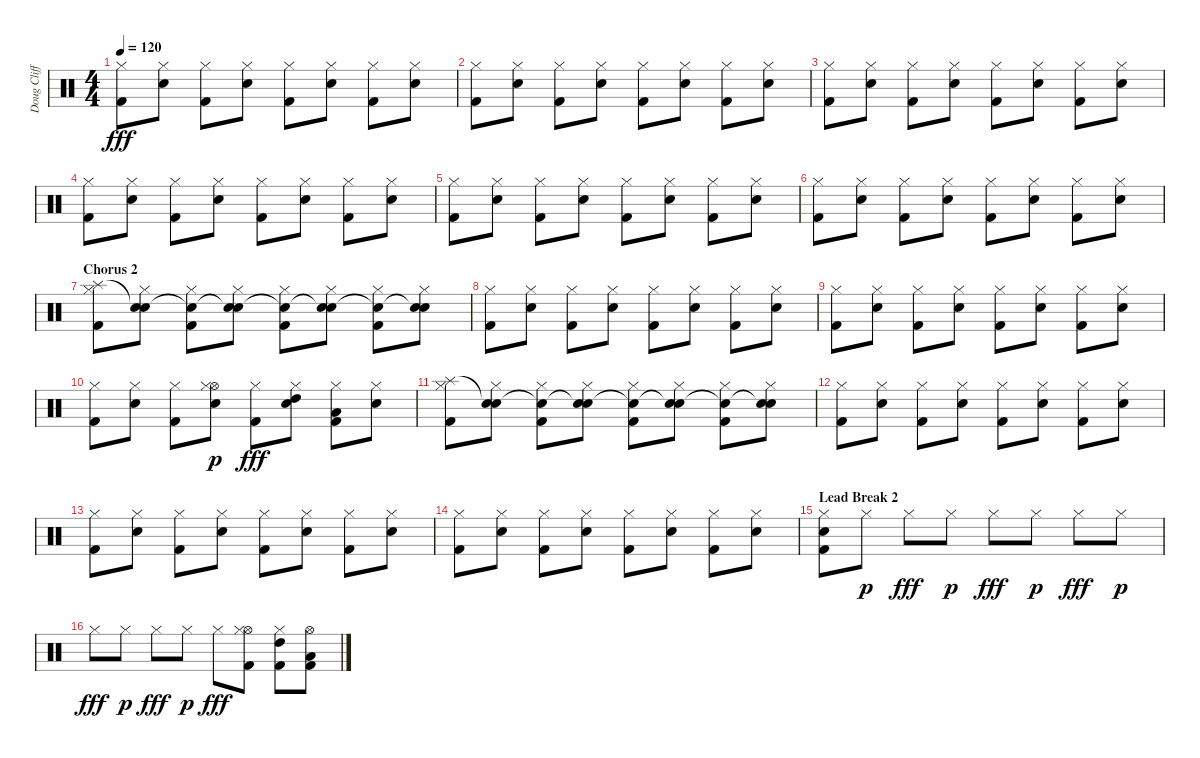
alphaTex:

\track ("Doug Clifford" "Doug Cliff") {instrument percussion}
\staff {score}
\articulation defaults
\ts (4 4)
\tempo 120
\clef neutral
\ks c
("Hi-Hat (closed)" "Kick (hit) 2").8{dy fff} ("Hi-Hat (closed)" "Snare (hit) 2").8 ("Hi-Hat (closed)" "Kick (hit) 2").8 ("Hi-Hat (closed)" "Snare (hit) 2").8 ("Hi-Hat (closed)" "Kick (hit) 2").8 ("Hi-Hat (closed)" "Snare (hit) 2").8 ("Hi-Hat (closed)" "Kick (hit) 2").8 ("Hi-Hat (closed)" "Snare (hit) 2").8 |
("Hi-Hat (closed)" "Kick (hit) 2").8 ("Hi-Hat (closed)" "Snare (hit) 2").8 ("Hi-Hat (closed)" "Kick (hit) 2").8 ("Hi-Hat (closed)" "Snare (hit) 2").8 ("Hi-Hat (closed)" "Kick (hit) 2").8 ("Hi-Hat (closed)" "Snare (hit) 2").8 ("Hi-Hat (closed)" "Kick (hit) 2").8 ("Hi-Hat (closed)" "Snare (hit) 2").8 |
("Hi-Hat (closed)" "Kick (hit) 2").8 ("Hi-Hat (closed)" "Snare (hit) 2").8 ("Hi-Hat (closed)" "Kick (hit) 2").8 ("Hi-Hat (closed)" "Snare (hit) 2").8 ("Hi-Hat (closed)" "Kick (hit) 2").8 ("Hi-Hat (closed)" "Snare (hit) 2").8 ("Hi-Hat (closed)" "Kick (hit) 2").8 ("Hi-Hat (closed)" "Snare (hit) 2").8 |
("Hi-Hat (closed)" "Kick (hit) 2").8 ("Hi-Hat (closed)" "Snare (hit) 2").8 ("Hi-Hat (closed)" "Kick (hit) 2").8 ("Hi-Hat (closed)" "Snare (hit) 2").8 ("Hi-Hat (closed)" "Kick (hit) 2").8 ("Hi-Hat (closed)" "Snare (hit) 2").8 ("Hi-Hat (closed)" "Kick (hit) 2").8 ("Hi-Hat (closed)" "Snare (hit) 2").8 |
("Hi-Hat (closed)" "Kick (hit) 2").8 ("Hi-Hat (closed)" "Snare (hit) 2").8 ("Hi-Hat (closed)" "Kick (hit) 2").8 ("Hi-Hat (closed)" "Snare (hit) 2").8 ("Hi-Hat (closed)" "Kick (hit) 2").8 ("Hi-Hat (closed)" "Snare (hit) 2").8 ("Hi-Hat (closed)" "Kick (hit) 2").8 ("Hi-Hat (closed)" "Snare (hit) 2").8 |
("Hi-Hat (closed)" "Kick (hit) 2").8 ("Hi-Hat (closed)" "Snare (hit) 2").8 ("Hi-Hat (closed)" "Kick (hit) 2").8 ("Hi-Hat (closed)" "Snare (hit) 2").8 ("Hi-Hat (closed)" "Kick (hit) 2").8 ("Hi-Hat (closed)" "Snare (hit) 2").8 ("Hi-Hat (closed)" "Kick (hit) 2").8 ("Hi-Hat (closed)" "Snare (hit) 2").8 |
\section ("" "Chorus 2")
("Splash (hit)" "Hi-Hat (closed)" "Kick (hit) 2").8 ("Snare (hit)"{t} "Hi-Hat (closed)" "Snare (hit) 2").8 ("Snare (hit)"{t} "Hi-Hat (closed)" "Kick (hit) 2").8 ("Snare (hit)"{t} "Hi-Hat (closed)" "Snare (hit) 2").8 ("Snare (hit)"{t} "Hi-Hat (closed)" "Kick (hit) 2").8 ("Snare (hit)"{t} "Hi-Hat (closed)" "Snare (hit) 2").8 ("Snare (hit)"{t} "Hi-Hat (closed)" "Kick (hit) 2").8 ("Snare (hit)"{t} "Hi-Hat (closed)" "Snare (hit) 2").8 |
("Hi-Hat (closed)" "Kick (hit) 2").8 ("Hi-Hat (closed)" "Snare (hit) 2").8 ("Hi-Hat (closed)" "Kick (hit) 2").8 ("Hi-Hat (closed)" "Snare (hit) 2").8 ("Hi-Hat (closed)" "Kick (hit) 2").8 ("Hi-Hat (closed)" "Snare (hit) 2").8 ("Hi-Hat (closed)" "Kick (hit) 2").8 ("Hi-Hat (closed)" "Snare (hit) 2").8 |
("Hi-Hat (closed)" "Kick (hit) 2").8 ("Hi-Hat (closed)" "Snare (hit) 2").8 ("Hi-Hat (closed)" "Kick (hit) 2").8 ("Hi-Hat (closed)" "Snare (hit) 2").8 ("Hi-Hat (closed)" "Kick (hit) 2").8 ("Hi-Hat (closed)" "Snare (hit) 2").8 ("Hi-Hat (closed)" "Kick (hit) 2").8 ("Hi-Hat (closed)" "Snare (hit) 2").8 |
("Hi-Hat (closed)" "Kick (hit) 2").8 ("Hi-Hat (closed)" "Snare (hit) 2").8 ("Hi-Hat (closed)" "Kick (hit) 2").8 ("Hi-Hat (open)" "Hi-Hat (closed)" "Snare (hit) 2").8{dy p} ("Hi-Hat (closed)" "Kick (hit) 2").8{dy fff} ("High Tom (hit)" "Hi-Hat (closed)" "Snare (hit) 2").8 ("Low Tom (hit)" "Hi-Hat (closed)" "Kick (hit) 2").8 ("Hi-Hat (closed)" "Electric Snare (hit)").8 |
("Splash (hit)" "Hi-Hat (closed)" "Kick (hit) 2").8 ("Snare (hit)"{t} "Hi-Hat (closed)" "Snare (hit) 2").8 ("Snare (hit)"{t} "Hi-Hat (closed)" "Kick (hit) 2").8 ("Snare (hit)"{t} "Hi-Hat (closed)" "Snare (hit) 2").8 ("Snare (hit)"{t} "Hi-Hat (closed)" "Kick (hit) 2").8 ("Snare (hit)"{t} "Hi-Hat (closed)" "Snare (hit) 2").8 ("Snare (hit)"{t} "Hi-Hat (closed)" "Kick (hit) 2").8 ("Snare (hit)"{t} "Hi-Hat (closed)" "Snare (hit) 2").8 |
("Hi-Hat (closed)" "Kick (hit) 2").8 ("Hi-Hat (closed)" "Snare (hit) 2").8 ("Hi-Hat (closed)" "Kick (hit) 2").8 ("Hi-Hat (closed)" "Snare (hit) 2").8 ("Hi-Hat (closed)" "Kick (hit) 2").8 ("Hi-Hat (closed)" "Snare (hit) 2").8 ("Hi-Hat (closed)" "Kick (hit) 2").8 ("Hi-Hat (closed)" "Snare (hit) 2").8 |
("Hi-Hat (closed)" "Kick (hit) 2").8 ("Hi-Hat (closed)" "Snare (hit) 2").8 ("Hi-Hat (closed)" "Kick (hit) 2").8 ("Hi-Hat (closed)" "Snare (hit) 2").8 ("Hi-Hat (closed)" "Kick (hit) 2").8 ("Hi-Hat (closed)" "Snare (hit) 2").8 ("Hi-Hat (closed)" "Kick (hit) 2").8 ("Hi-Hat (closed)" "Snare (hit) 2").8 |
("Hi-Hat (closed)" "Kick (hit) 2").8 ("Hi-Hat (closed)" "Snare (hit) 2").8 ("Hi-Hat (closed)" "Kick (hit) 2").8 ("Hi-Hat (closed)" "Snare (hit) 2").8 ("Hi-Hat (closed)" "Kick (hit) 2").8 ("Hi-Hat (closed)" "Snare (hit) 2").8 ("Hi-Hat (closed)" "Kick (hit) 2").8 ("Hi-Hat (closed)" "Snare (hit) 2").8 |
\section ("" "Lead Break 2")
("Hi-Hat (closed)" "Snare (hit) 2" "Kick (hit) 2").8 "Hi-Hat (closed)".8{dy p} "Hi-Hat (closed)".8{dy fff} "Hi-Hat (closed)".8{dy p} "Hi-Hat (closed)".8{dy fff} "Hi-Hat (closed)".8{dy p} "Hi-Hat (closed)".8{dy fff} "Hi-Hat (closed)".8{dy p} |
"Hi-Hat (closed)".8{dy fff} "Hi-Hat (closed)".8{dy p} "Hi-Hat (closed)".8{dy fff} "Hi-Hat (closed)".8{dy p} "Hi-Hat (closed)".8{dy fff} ("Hi-Hat (open)" "Hi-Hat (closed)" "Kick (hit) 2").8 ("High Tom (hit)" "Hi-Hat (closed)" "Kick (hit) 2").8 ("Low Tom (hit)" "Hi-Hat (open)" "Kick (hit) 2").8
